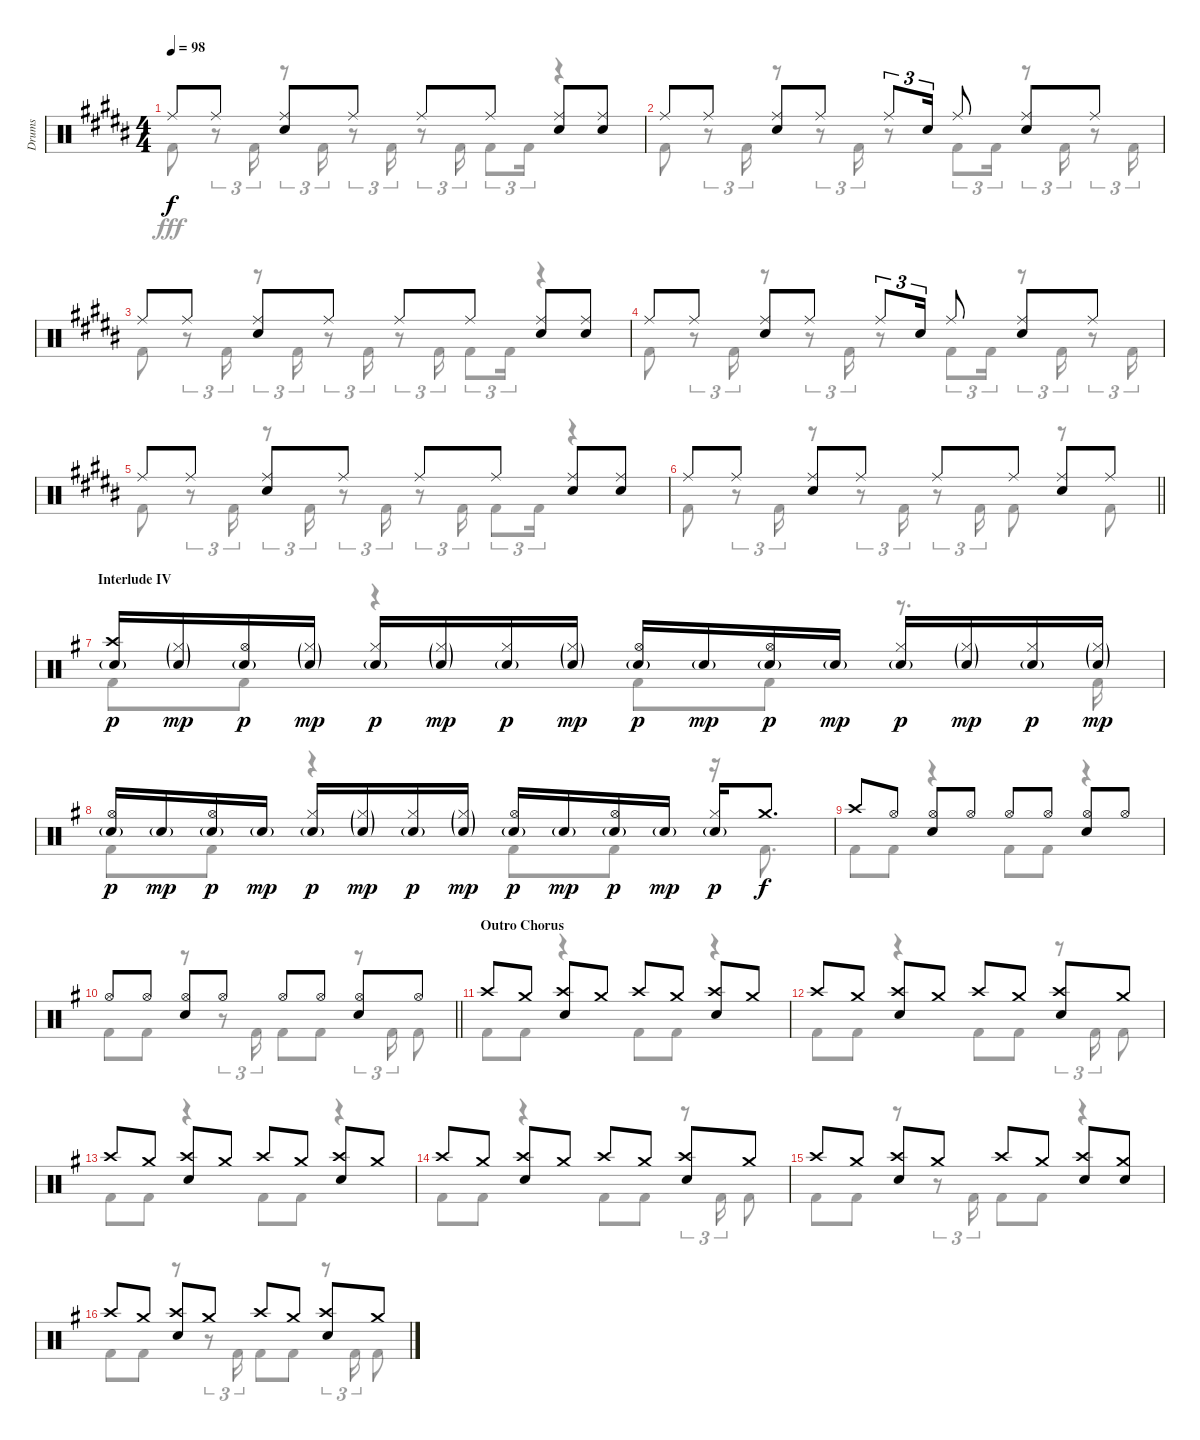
\track ("Drums" "Drums") {instrument percussion}
\staff {score}
\articulation defaults
\voice
\ts (4 4)
\tempo 98
\clef neutral
\ks b "Ride (middle)".8{dy f} "Ride (middle)".8
("Ride (middle)" "Snare (hit) 2").8 "Ride (middle)".8 "Ride (middle)".8 "Ride (middle)".8 ("Ride (middle)" "Snare (hit) 2").8 ("Ride (middle)" "Snare (hit) 2").8 |
"Ride (middle)".8 "Ride (middle)".8 ("Ride (middle)" "Snare (hit) 2").8 "Ride (middle)".8 "Ride (middle)".8{tu (3 2)} "Snare (hit) 2".16{tu (3 2)} "Ride (middle)".8 ("Ride (middle)" "Snare (hit) 2").8 "Ride (middle)".8 |
"Ride (middle)".8 "Ride (middle)".8 ("Ride (middle)" "Snare (hit) 2").8 "Ride (middle)".8 "Ride (middle)".8 "Ride (middle)".8 ("Ride (middle)" "Snare (hit) 2").8 ("Ride (middle)" "Snare (hit) 2").8 |
"Ride (middle)".8 "Ride (middle)".8 ("Ride (middle)" "Snare (hit) 2").8 "Ride (middle)".8 "Ride (middle)".8{tu (3 2)} "Snare (hit) 2".16{tu (3 2)} "Ride (middle)".8 ("Ride (middle)" "Snare (hit) 2").8 "Ride (middle)".8 |
"Ride (middle)".8 "Ride (middle)".8 ("Ride (middle)" "Snare (hit) 2").8 "Ride (middle)".8 "Ride (middle)".8 "Ride (middle)".8 ("Ride (middle)" "Snare (hit) 2").8 ("Ride (middle)" "Snare (hit) 2").8 |
\barLineRight lightlight "Ride (middle)".8 "Ride (middle)".8
("Ride (middle)" "Snare (hit) 2").8 "Ride (middle)".8 "Ride (middle)".8 "Ride (middle)".8 ("Ride (middle)" "Snare (hit) 2").8 "Ride (middle)".8 |
\section ("" "Interlude IV")
\ks g
("Crash high (hit)" "Snare (hit) 2"{g}).16{dy p} ("Hi-Hat (closed)"{g} "Snare (hit) 2"{g}).16{dy mp} ("Hi-Hat (open)" "Snare (hit) 2"{g}).16{dy p} ("Hi-Hat (closed)"{g} "Snare (hit) 2"{g}).16{dy mp} ("Hi-Hat (closed)" "Snare (hit) 2"{g}).16{dy p} ("Hi-Hat (closed)"{g} "Snare (hit) 2"{g}).16{dy mp} ("Hi-Hat (closed)" "Snare (hit) 2"{g}).16{dy p} ("Hi-Hat (closed)"{g} "Snare (hit) 2"{g}).16{dy mp} ("Hi-Hat (open)" "Snare (hit) 2"{g}).16{dy p} "Snare (hit) 2"{g}.16{dy mp} ("Hi-Hat (open)" "Snare (hit) 2"{g}).16{dy p} "Snare (hit) 2"{g}.16{dy mp} ("Hi-Hat (closed)" "Snare (hit) 2"{g}).16{dy p} ("Hi-Hat (closed)"{g} "Snare (hit) 2"{g}).16{dy mp} ("Hi-Hat (closed)" "Snare (hit) 2"{g}).16{dy p} ("Hi-Hat (closed)"{g} "Snare (hit) 2"{g}).16{dy mp} |
("Hi-Hat (open)" "Snare (hit) 2"{g}).16{dy p} "Snare (hit) 2"{g}.16{dy mp} ("Hi-Hat (open)" "Snare (hit) 2"{g}).16{dy p} "Snare (hit) 2"{g}.16{dy mp} ("Hi-Hat (closed)" "Snare (hit) 2"{g}).16{dy p} ("Hi-Hat (closed)"{g} "Snare (hit) 2"{g}).16{dy mp} ("Hi-Hat (closed)" "Snare (hit) 2"{g}).16{dy p} ("Hi-Hat (closed)"{g} "Snare (hit) 2"{g}).16{dy mp} ("Hi-Hat (open)" "Snare (hit) 2"{g}).16{dy p} "Snare (hit) 2"{g}.16{dy mp} ("Hi-Hat (open)" "Snare (hit) 2"{g}).16{dy p} "Snare (hit) 2"{g}.16{dy mp} ("Hi-Hat (closed)" "Snare (hit) 2"{g}).16{dy p} "Crash medium (hit)".8{d dy f} |
"Crash high (hit)".8 "Hi-Hat (open)".8 ("Hi-Hat (open)" "Snare (hit) 2").8 "Hi-Hat (open)".8 "Hi-Hat (open)".8 "Hi-Hat (open)".8 ("Hi-Hat (open)" "Snare (hit) 2").8 "Hi-Hat (open)".8 |
\barLineRight lightlight "Hi-Hat (open)".8 "Hi-Hat (open)".8
("Hi-Hat (open)" "Snare (hit) 2").8 "Hi-Hat (open)".8 "Hi-Hat (open)".8 "Hi-Hat (open)".8 ("Hi-Hat (open)" "Snare (hit) 2").8 "Hi-Hat (open)".8 |
\section ("" "Outro Chorus")
"Crash high (hit)".8 "Crash medium (hit)".8 ("Crash high (hit)" "Snare (hit) 2").8 "Crash medium (hit)".8 "Crash high (hit)".8 "Crash medium (hit)".8 ("Crash high (hit)" "Snare (hit) 2").8 "Crash medium (hit)".8 |
"Crash high (hit)".8 "Crash medium (hit)".8 ("Crash high (hit)" "Snare (hit) 2").8 "Crash medium (hit)".8 "Crash high (hit)".8 "Crash medium (hit)".8 ("Crash high (hit)" "Snare (hit) 2").8 "Crash medium (hit)".8 |
"Crash high (hit)".8 "Crash medium (hit)".8 ("Crash high (hit)" "Snare (hit) 2").8 "Crash medium (hit)".8 "Crash high (hit)".8 "Crash medium (hit)".8 ("Crash high (hit)" "Snare (hit) 2").8 "Crash medium (hit)".8 |
"Crash high (hit)".8 "Crash medium (hit)".8 ("Crash high (hit)" "Snare (hit) 2").8 "Crash medium (hit)".8 "Crash high (hit)".8 "Crash medium (hit)".8 ("Crash high (hit)" "Snare (hit) 2").8 "Crash medium (hit)".8 |
"Crash high (hit)".8 "Crash medium (hit)".8 ("Crash high (hit)" "Snare (hit) 2").8 "Crash medium (hit)".8 "Crash high (hit)".8 "Crash medium (hit)".8 ("Crash high (hit)" "Snare (hit) 2").8 ("Crash medium (hit)" "Snare (hit) 2").8 |
"Crash high (hit)".8 "Crash medium (hit)".8 ("Crash high (hit)" "Snare (hit) 2").8 "Crash medium (hit)".8 "Crash high (hit)".8 "Crash medium (hit)".8 ("Crash high (hit)" "Snare (hit) 2").8 "Crash medium (hit)".8
\voice
\clef neutral
\ottava regular
\simile none
\ks b "Kick (hit) 2".8{dy fff}
r.8{tu (3 2)} "Kick (hit) 2".16{tu (3 2)} r.8{tu (3 2)} "Kick (hit) 2".16{tu (3 2)} r.8{tu (3 2)} "Kick (hit) 2".16{tu (3 2)} r.8{tu (3 2)} "Kick (hit) 2".16{tu (3 2)} "Kick (hit) 2".8{tu (3 2)} "Kick (hit) 2".16{tu (3 2)} r.4 |
"Kick (hit) 2".8 r.8{tu (3 2)} "Kick (hit) 2".16{tu (3 2)} r.8 r.8{tu (3 2)} "Kick (hit) 2".16{tu (3 2)} r.8 "Kick (hit) 2".8{tu (3 2)} "Kick (hit) 2".16{tu (3 2)} r.8{tu (3 2)} "Kick (hit) 2".16{tu (3 2)} r.8{tu (3 2)} "Kick (hit) 2".16{tu (3 2)} |
"Kick (hit) 2".8 r.8{tu (3 2)} "Kick (hit) 2".16{tu (3 2)} r.8{tu (3 2)} "Kick (hit) 2".16{tu (3 2)} r.8{tu (3 2)} "Kick (hit) 2".16{tu (3 2)} r.8{tu (3 2)} "Kick (hit) 2".16{tu (3 2)} "Kick (hit) 2".8{tu (3 2)} "Kick (hit) 2".16{tu (3 2)} r.4 |
"Kick (hit) 2".8 r.8{tu (3 2)} "Kick (hit) 2".16{tu (3 2)} r.8 r.8{tu (3 2)} "Kick (hit) 2".16{tu (3 2)} r.8 "Kick (hit) 2".8{tu (3 2)} "Kick (hit) 2".16{tu (3 2)} r.8{tu (3 2)} "Kick (hit) 2".16{tu (3 2)} r.8{tu (3 2)} "Kick (hit) 2".16{tu (3 2)} |
"Kick (hit) 2".8 r.8{tu (3 2)} "Kick (hit) 2".16{tu (3 2)} r.8{tu (3 2)} "Kick (hit) 2".16{tu (3 2)} r.8{tu (3 2)} "Kick (hit) 2".16{tu (3 2)} r.8{tu (3 2)} "Kick (hit) 2".16{tu (3 2)} "Kick (hit) 2".8{tu (3 2)} "Kick (hit) 2".16{tu (3 2)} r.4 |
\barLineRight lightlight "Kick (hit) 2".8
r.8{tu (3 2)} "Kick (hit) 2".16{tu (3 2)} r.8 r.8{tu (3 2)} "Kick (hit) 2".16{tu (3 2)} r.8{tu (3 2)} "Kick (hit) 2".16{tu (3 2)} "Kick (hit) 2".8 r.8 "Kick (hit) 2".8 |
\ks g "Kick (hit) 2".8 "Kick (hit) 2".8
r.4 "Kick (hit) 2".8 "Kick (hit) 2".8 r.8{d} "Kick (hit) 2".16 |
"Kick (hit) 2".8 "Kick (hit) 2".8 r.4 "Kick (hit) 2".8 "Kick (hit) 2".8 r.16 "Kick (hit) 2".8{d} |
"Kick (hit) 2".8 "Kick (hit) 2".8 r.4 "Kick (hit) 2".8 "Kick (hit) 2".8 r.4 |
\barLineRight lightlight "Kick (hit) 2".8 "Kick (hit) 2".8
r.8 r.8{tu (3 2)} "Kick (hit) 2".16{tu (3 2)} "Kick (hit) 2".8 "Kick (hit) 2".8 r.8{tu (3 2)} "Kick (hit) 2".16{tu (3 2)} "Kick (hit) 2".8 |
"Kick (hit) 2".8 "Kick (hit) 2".8 r.4 "Kick (hit) 2".8 "Kick (hit) 2".8 r.4 |
"Kick (hit) 2".8 "Kick (hit) 2".8 r.4 "Kick (hit) 2".8 "Kick (hit) 2".8 r.8{tu (3 2)} "Kick (hit) 2".16{tu (3 2)} "Kick (hit) 2".8 |
"Kick (hit) 2".8 "Kick (hit) 2".8 r.4 "Kick (hit) 2".8 "Kick (hit) 2".8 r.4 |
"Kick (hit) 2".8 "Kick (hit) 2".8 r.4 "Kick (hit) 2".8 "Kick (hit) 2".8 r.8{tu (3 2)} "Kick (hit) 2".16{tu (3 2)} "Kick (hit) 2".8 |
"Kick (hit) 2".8 "Kick (hit) 2".8 r.8 r.8{tu (3 2)} "Kick (hit) 2".16{tu (3 2)} "Kick (hit) 2".8 "Kick (hit) 2".8 r.4 |
"Kick (hit) 2".8 "Kick (hit) 2".8 r.8 r.8{tu (3 2)} "Kick (hit) 2".16{tu (3 2)} "Kick (hit) 2".8 "Kick (hit) 2".8 r.8{tu (3 2)} "Kick (hit) 2".16{tu (3 2)} "Kick (hit) 2".8
